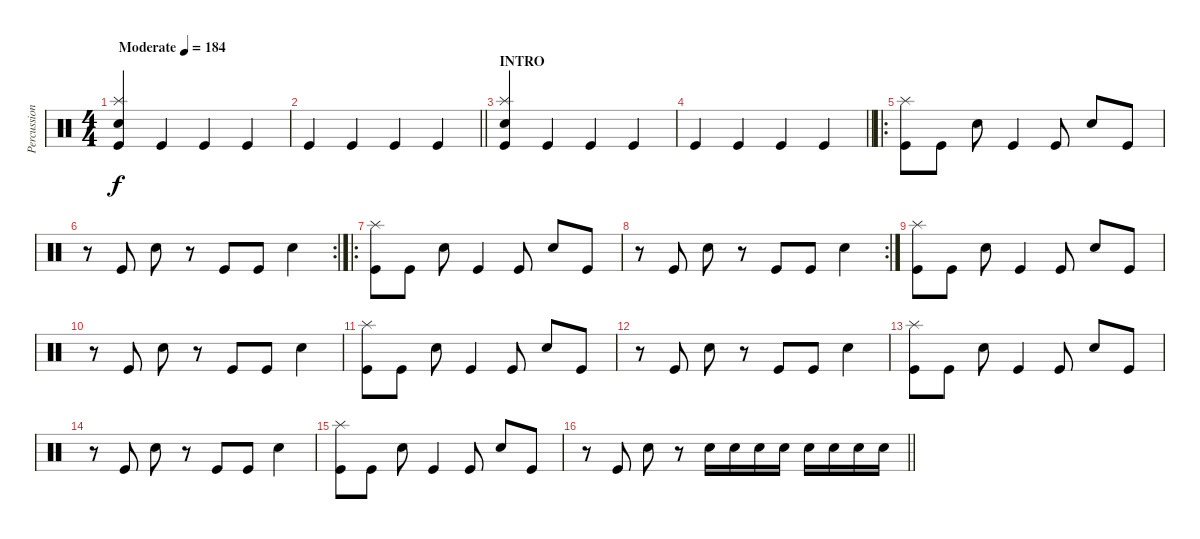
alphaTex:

\track ("Percussions" "Percussion") {instrument percussion}
\staff {score}
\articulation defaults
\ts (4 4)
\tempo (184 "Moderate")
\clef neutral
\ks c
("Electric Snare (hit)" "Splash (hit)" "Kick (hit)").4{dy f} "Kick (hit)".4 "Kick (hit)".4 "Kick (hit)".4 |
\barLineRight lightlight "Kick (hit)".4 "Kick (hit)".4 "Kick (hit)".4 "Kick (hit)".4
|
\section ("" "INTRO")
("Electric Snare (hit)" "Splash (hit)" "Kick (hit)").4 "Kick (hit)".4 "Kick (hit)".4 "Kick (hit)".4 |
\barLineRight lightlight "Kick (hit)".4 "Kick (hit)".4 "Kick (hit)".4 "Kick (hit)".4
|
\ro
("Splash (hit)" "Kick (hit)").8 "Kick (hit)".8 "Electric Snare (hit)".8 "Kick (hit)".4 "Kick (hit)".8 "Electric Snare (hit)".8 "Kick (hit)".8 |
\rc 2
r.8 "Kick (hit)".8 "Electric Snare (hit)".8 r.8 "Kick (hit)".8 "Kick (hit)".8 "Electric Snare (hit)".4 |
\ro
("Splash (hit)" "Kick (hit)").8 "Kick (hit)".8 "Electric Snare (hit)".8 "Kick (hit)".4 "Kick (hit)".8 "Electric Snare (hit)".8 "Kick (hit)".8 |
\rc 2
r.8 "Kick (hit)".8 "Electric Snare (hit)".8 r.8 "Kick (hit)".8 "Kick (hit)".8 "Electric Snare (hit)".4 |
("Splash (hit)" "Kick (hit)").8 "Kick (hit)".8 "Electric Snare (hit)".8 "Kick (hit)".4 "Kick (hit)".8 "Electric Snare (hit)".8 "Kick (hit)".8 |
r.8 "Kick (hit)".8 "Electric Snare (hit)".8 r.8 "Kick (hit)".8 "Kick (hit)".8 "Electric Snare (hit)".4 |
("Splash (hit)" "Kick (hit)").8 "Kick (hit)".8 "Electric Snare (hit)".8 "Kick (hit)".4 "Kick (hit)".8 "Electric Snare (hit)".8 "Kick (hit)".8 |
r.8 "Kick (hit)".8 "Electric Snare (hit)".8 r.8 "Kick (hit)".8 "Kick (hit)".8 "Electric Snare (hit)".4 |
("Splash (hit)" "Kick (hit)").8 "Kick (hit)".8 "Electric Snare (hit)".8 "Kick (hit)".4 "Kick (hit)".8 "Electric Snare (hit)".8 "Kick (hit)".8 |
r.8 "Kick (hit)".8 "Electric Snare (hit)".8 r.8 "Kick (hit)".8 "Kick (hit)".8 "Electric Snare (hit)".4 |
("Splash (hit)" "Kick (hit)").8 "Kick (hit)".8 "Electric Snare (hit)".8 "Kick (hit)".4 "Kick (hit)".8 "Electric Snare (hit)".8 "Kick (hit)".8 |
\barLineRight lightlight
r.8 "Kick (hit)".8 "Electric Snare (hit)".8 r.8 "Electric Snare (hit)".16 "Electric Snare (hit)".16 "Electric Snare (hit)".16 "Electric Snare (hit)".16 "Electric Snare (hit)".16 "Electric Snare (hit)".16 "Electric Snare (hit)".16 "Electric Snare (hit)".16
